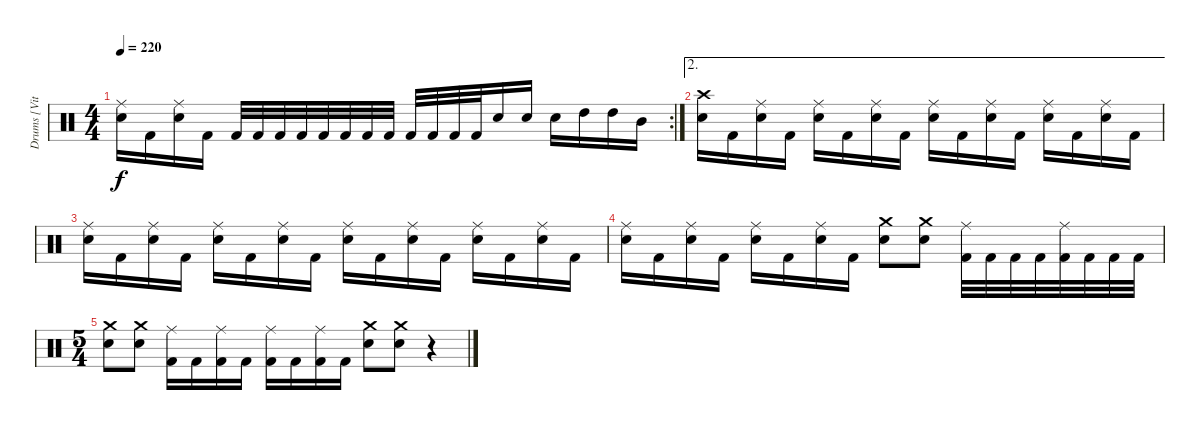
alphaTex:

\track ("Drums [Vitek]" "Drums [Vit") {instrument percussion}
\staff {score}
\articulation defaults
\rc 2
\ts (4 4)
\tempo 220
\clef neutral
\ks c
("Ride (middle)" "Electric Snare (hit)").16{dy f} "Kick (hit) 2".16 ("Ride (middle)" "Electric Snare (hit)").16 "Kick (hit) 2".16 "Kick (hit) 2".32 "Kick (hit) 2".32 "Kick (hit) 2".32 "Kick (hit) 2".32 "Kick (hit) 2".32 "Kick (hit) 2".32 "Kick (hit) 2".32 "Kick (hit) 2".32 "Kick (hit) 2".32 "Kick (hit) 2".32 "Kick (hit) 2".32 "Kick (hit) 2".32 "Electric Snare (hit)".16 "Electric Snare (hit)".16 "Electric Snare (hit)".16 "High Tom (hit)".16 "High Tom (hit)".16 "Mid Tom (hit)".16 |
\ae 2
("Crash high (hit)" "Electric Snare (hit)").16 "Kick (hit) 2".16 ("Ride (middle)" "Electric Snare (hit)").16 "Kick (hit) 2".16 ("Ride (middle)" "Electric Snare (hit)").16 "Kick (hit) 2".16 ("Ride (middle)" "Electric Snare (hit)").16 "Kick (hit) 2".16 ("Ride (middle)" "Electric Snare (hit)").16 "Kick (hit) 2".16 ("Ride (middle)" "Electric Snare (hit)").16 "Kick (hit) 2".16 ("Ride (middle)" "Electric Snare (hit)").16 "Kick (hit) 2".16 ("Ride (middle)" "Electric Snare (hit)").16 "Kick (hit) 2".16 |
("Ride (middle)" "Electric Snare (hit)").16 "Kick (hit) 2".16 ("Ride (middle)" "Electric Snare (hit)").16 "Kick (hit) 2".16 ("Ride (middle)" "Electric Snare (hit)").16 "Kick (hit) 2".16 ("Ride (middle)" "Electric Snare (hit)").16 "Kick (hit) 2".16 ("Ride (middle)" "Electric Snare (hit)").16 "Kick (hit) 2".16 ("Ride (middle)" "Electric Snare (hit)").16 "Kick (hit) 2".16 ("Ride (middle)" "Electric Snare (hit)").16 "Kick (hit) 2".16 ("Ride (middle)" "Electric Snare (hit)").16 "Kick (hit) 2".16 |
("Ride (middle)" "Electric Snare (hit)").16 "Kick (hit) 2".16 ("Ride (middle)" "Electric Snare (hit)").16 "Kick (hit) 2".16 ("Ride (middle)" "Electric Snare (hit)").16 "Kick (hit) 2".16 ("Ride (middle)" "Electric Snare (hit)").16 "Kick (hit) 2".16 ("Crash medium (hit)" "Electric Snare (hit)").8 ("Crash medium (hit)" "Electric Snare (hit)").8 ("Ride (middle)" "Kick (hit) 2").32 "Kick (hit) 2".32 "Kick (hit) 2".32 "Kick (hit) 2".32 ("Ride (middle)" "Kick (hit) 2").32 "Kick (hit) 2".32 "Kick (hit) 2".32 "Kick (hit) 2".32 |
\ts (5 4)
("Crash medium (hit)" "Electric Snare (hit)").8 ("Crash medium (hit)" "Electric Snare (hit)").8 ("Ride (middle)" "Kick (hit) 2").16 "Kick (hit) 2".16 ("Ride (middle)" "Kick (hit) 2").16 "Kick (hit) 2".16 ("Ride (middle)" "Kick (hit) 2").16 "Kick (hit) 2".16 ("Ride (middle)" "Kick (hit) 2").16 "Kick (hit) 2".16 ("Crash medium (hit)" "Electric Snare (hit)").8 ("Crash medium (hit)" "Electric Snare (hit)").8 r.4
